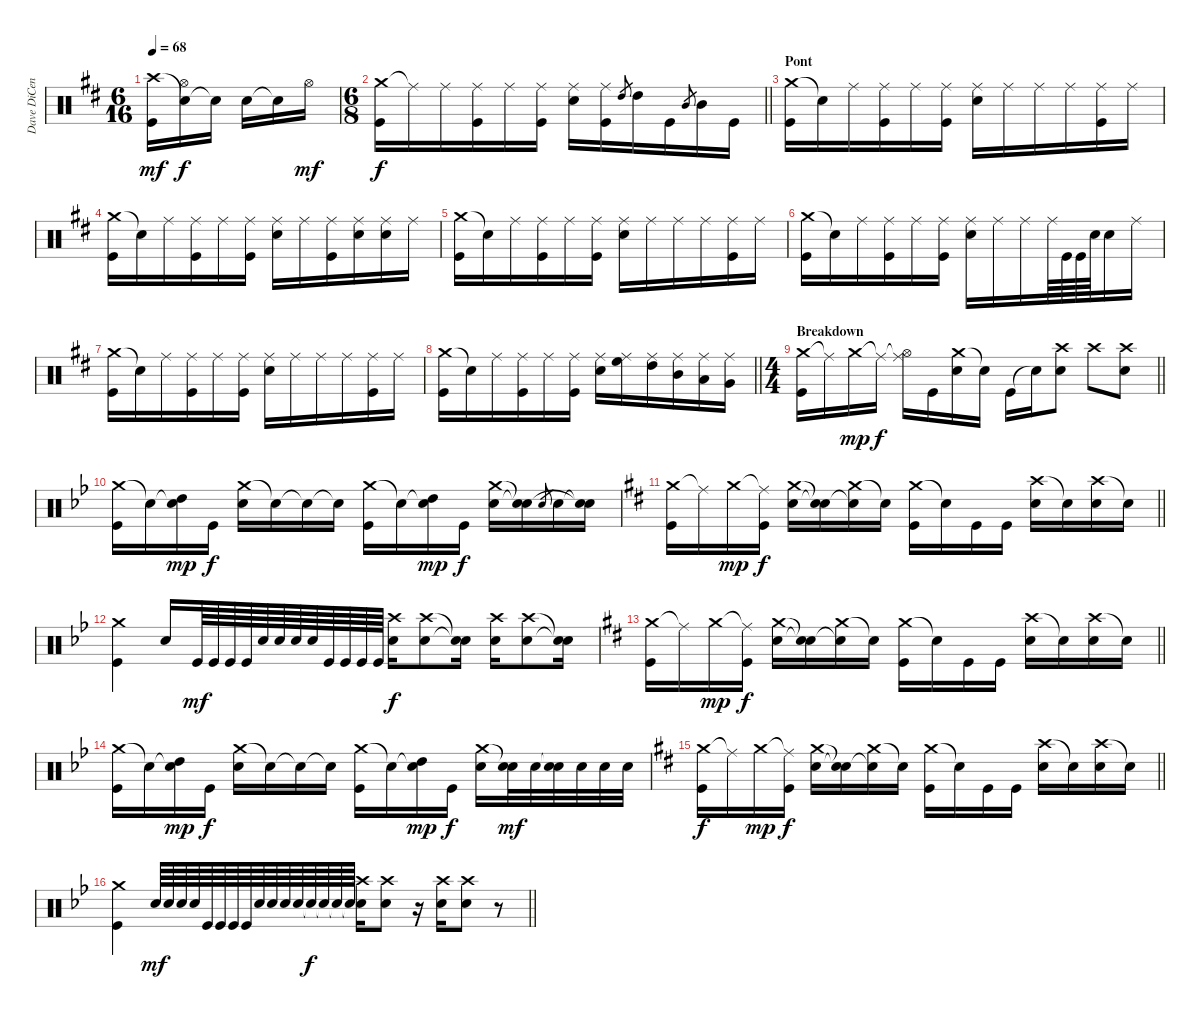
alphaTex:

\track ("Dave DiCenso" "Dave DiCen") {instrument percussion}
\staff {score}
\articulation defaults
\ts (6 16)
\tempo 68
\clef neutral
\ks d
("Crash high (hit)" "Kick (hit)").16{dy mf} ("Snare (hit)"{t} "Hi-Hat (open)").16{dy f} "Snare (hit)"{t}.16 "Electric Snare (hit)".16 "Snare (hit)"{t}.16 "Hi-Hat (open)".16{dy mf} |
\ts (6 8)
\barLineRight lightlight
("Crash medium (hit)" "Kick (hit)").16{dy f} "Ride (middle)"{t}.16 "Ride (middle)".16 ("Ride (middle)" "Kick (hit)").16 "Ride (middle)".16 ("Ride (middle)" "Kick (hit)").16 ("Ride (middle)" "Electric Snare (hit)").16 ("Ride (middle)" "Kick (hit)").16 "High Tom (hit)".8{gr} "High Tom (hit)".16 "Kick (hit)".16 "Mid Tom (hit)".8{gr} "Mid Tom (hit)".16 "Kick (hit)".16 |
\section ("" "Pont")
("Crash medium (hit)" "Kick (hit)").16 "Snare (hit)"{t}.16 "Ride (middle)".16 ("Ride (middle)" "Kick (hit)").16 "Ride (middle)".16 ("Ride (middle)" "Kick (hit)").16 ("Ride (middle)" "Electric Snare (hit)").16 "Ride (middle)".16 "Ride (middle)".16 "Ride (middle)".16 ("Ride (middle)" "Kick (hit)").16 "Ride (middle)".16 |
("Crash medium (hit)" "Kick (hit)").16 "Snare (hit)"{t}.16 "Ride (middle)".16 ("Ride (middle)" "Kick (hit)").16 "Ride (middle)".16 ("Ride (middle)" "Kick (hit)").16 ("Ride (middle)" "Electric Snare (hit)").16 "Ride (middle)".16 ("Ride (middle)" "Kick (hit)").16 ("Ride (middle)" "Electric Snare (hit)").16 ("Ride (middle)" "Electric Snare (hit)").16 "Ride (middle)".16 |
("Crash medium (hit)" "Kick (hit)").16 "Snare (hit)"{t}.16 "Ride (middle)".16 ("Ride (middle)" "Kick (hit)").16 "Ride (middle)".16 ("Ride (middle)" "Kick (hit)").16 ("Ride (middle)" "Electric Snare (hit)").16 "Ride (middle)".16 "Ride (middle)".16 "Ride (middle)".16 ("Ride (middle)" "Kick (hit)").16 "Ride (middle)".16 |
("Crash medium (hit)" "Kick (hit)").16 "Snare (hit)"{t}.16 "Ride (middle)".16 ("Ride (middle)" "Kick (hit)").16 "Ride (middle)".16 ("Ride (middle)" "Kick (hit)").16 ("Ride (middle)" "Electric Snare (hit)").16 "Ride (middle)".16 "Ride (middle)".16 "Ride (middle)".64 "Kick (hit)".64 "Kick (hit)".64 "Electric Snare (hit)".64 "Electric Snare (hit)".16 "Ride (middle)".16 |
("Crash medium (hit)" "Kick (hit)").16 "Snare (hit)"{t}.16 "Ride (middle)".16 ("Ride (middle)" "Kick (hit)").16 "Ride (middle)".16 ("Ride (middle)" "Kick (hit)").16 ("Ride (middle)" "Electric Snare (hit)").16 "Ride (middle)".16 "Ride (middle)".16 "Ride (middle)".16 ("Ride (middle)" "Kick (hit)").16 "Ride (middle)".16 |
\barLineRight lightlight
("Crash medium (hit)" "Kick (hit)").16 "Snare (hit)"{t}.16 "Ride (middle)".16 ("Ride (middle)" "Kick (hit)").16 "Ride (middle)".16 ("Ride (middle)" "Kick (hit)").16 ("Ride (middle)" "Electric Snare (hit)").16 ("Ride (middle)" "High Floor Tom (hit)").16 ("Ride (middle)" "High Tom (hit)").16 ("Ride (middle)" "Mid Tom (hit)").16 ("Ride (middle)" "Low Tom (hit)").16 ("Ride (middle)" "Very Low Tom (hit)").16 |
\ts (4 4)
\section ("" "Breakdown")
\barLineRight lightlight
("Crash medium (hit)" "Kick (hit)").16 "Ride (middle)"{t}.16 "Crash medium (hit)".16{dy mp} "Ride (middle)"{t}.16{dy f} ("Ride (middle)"{t} "Hi-Hat (open)").16 "Kick (hit)".16 ("Crash medium (hit)" "Electric Snare (hit)").16 "Snare (hit)"{t}.16 "Kick (hit)".16 "Snare (hit)"{t}.16 ("Crash high (hit)" "Electric Snare (hit)").8 "Crash high (hit)".8 ("Crash high (hit)" "Electric Snare (hit)").8 |
\ks bb
("Crash medium (hit)" "Kick (hit)").16 "Snare (hit)"{t}.16 ("Snare (hit)"{t} "High Tom (hit)").16{dy mp} "Kick (hit)".16{dy f} ("Crash medium (hit)" "Electric Snare (hit)").16 "Snare (hit)"{t}.16 "Snare (hit)"{t}.16 "Snare (hit)"{t}.16 ("Crash medium (hit)" "Kick (hit)").16 "Snare (hit)"{t}.16 ("Snare (hit)"{t} "High Tom (hit)").16{dy mp} "Kick (hit)".16{dy f} ("Crash medium (hit)" "Electric Snare (hit)").16 ("Snare (hit)"{t} "Snare (hit)"{t}).16 "Electric Snare (hit)".8{gr} "Electric Snare (hit)".16 ("Snare (hit)"{t} "Snare (hit)"{t}).16 |
\barLineRight lightlight
\ks d
("Crash medium (hit)" "Kick (hit)").16 "Ride (middle)"{t}.16 "Crash medium (hit)".16{dy mp} ("Ride (middle)"{t} "Kick (hit)").16{dy f} ("Crash medium (hit)" "Electric Snare (hit)").16 ("Snare (hit)"{t} "Snare (hit)"{t}).16 ("Crash medium (hit)" "Electric Snare (hit)"{t}).16 "Snare (hit)"{t}.16 ("Crash medium (hit)" "Kick (hit)").16 "Snare (hit)"{t}.16 "Kick (hit)".16 "Kick (hit)".16 ("Crash high (hit)" "Electric Snare (hit)").16 "Snare (hit)"{t}.16 ("Crash high (hit)" "Electric Snare (hit)").16 "Snare (hit)"{t}.16 |
\ks bb
("Crash medium (hit)" "Kick (hit)").4 "Electric Snare (hit)".16 "Kick (hit)".64{dy mf} "Kick (hit)".64 "Kick (hit)".64 "Kick (hit)".64 "Electric Snare (hit)".64 "Electric Snare (hit)".64 "Electric Snare (hit)".64 "Electric Snare (hit)".64 "Kick (hit)".64 "Kick (hit)".64 "Kick (hit)".64 "Kick (hit)".64 ("Crash high (hit)" "Electric Snare (hit)").16{dy f} ("Crash high (hit)" "Electric Snare (hit)").8 ("Snare (hit)"{t} "Snare (hit)"{t}).16 ("Crash high (hit)" "Electric Snare (hit)").16 ("Crash high (hit)" "Electric Snare (hit)").8 ("Snare (hit)"{t} "Snare (hit)"{t}).16 |
\barLineRight lightlight
\ks d
("Crash medium (hit)" "Kick (hit)").16 "Ride (middle)"{t}.16 "Crash medium (hit)".16{dy mp} ("Ride (middle)"{t} "Kick (hit)").16{dy f} ("Crash medium (hit)" "Electric Snare (hit)").16 ("Snare (hit)"{t} "Snare (hit)"{t}).16 ("Crash medium (hit)" "Electric Snare (hit)"{t}).16 "Snare (hit)"{t}.16 ("Crash medium (hit)" "Kick (hit)").16 "Snare (hit)"{t}.16 "Kick (hit)".16 "Kick (hit)".16 ("Crash high (hit)" "Electric Snare (hit)").16 "Snare (hit)"{t}.16 ("Crash high (hit)" "Electric Snare (hit)").16 "Snare (hit)"{t}.16 |
\ks bb
("Crash medium (hit)" "Kick (hit)").16 "Snare (hit)"{t}.16 ("Snare (hit)"{t} "High Tom (hit)").16{dy mp} "Kick (hit)".16{dy f} ("Crash medium (hit)" "Electric Snare (hit)").16 "Snare (hit)"{t}.16 "Snare (hit)"{t}.16 "Snare (hit)"{t}.16 ("Crash medium (hit)" "Kick (hit)").16 "Snare (hit)"{t}.16 ("Snare (hit)"{t} "High Tom (hit)").16{dy mp} "Kick (hit)".16{dy f} ("Crash medium (hit)" "Electric Snare (hit)").16 ("Snare (hit)"{t} "Electric Snare (hit)").32{dy mf} "Electric Snare (hit)".32 ("Snare (hit)"{t} "Electric Snare (hit)").32 "Electric Snare (hit)".32 "Electric Snare (hit)".32 "Electric Snare (hit)".32 |
\barLineRight lightlight
\ks d
("Crash medium (hit)" "Kick (hit)").16{dy f} "Ride (middle)"{t}.16 "Crash medium (hit)".16{dy mp} ("Ride (middle)"{t} "Kick (hit)").16{dy f} ("Crash medium (hit)" "Electric Snare (hit)").16 ("Snare (hit)"{t} "Snare (hit)"{t}).16 ("Crash medium (hit)" "Electric Snare (hit)"{t}).16 "Snare (hit)"{t}.16 ("Crash medium (hit)" "Kick (hit)").16 "Snare (hit)"{t}.16 "Kick (hit)".16 "Kick (hit)".16 ("Crash high (hit)" "Electric Snare (hit)").16 "Snare (hit)"{t}.16 ("Crash high (hit)" "Electric Snare (hit)").16 "Snare (hit)"{t}.16 |
\barLineRight lightlight
\ks bb
("Crash medium (hit)" "Kick (hit)").4 "Electric Snare (hit)".64{dy mf} "Electric Snare (hit)".64 "Electric Snare (hit)".64 "Electric Snare (hit)".64 "Kick (hit)".64 "Kick (hit)".64 "Kick (hit)".64 "Kick (hit)".64 "Electric Snare (hit)".64 "Electric Snare (hit)".64 "Electric Snare (hit)".64 "Electric Snare (hit)".64 "Snare (hit)"{t}.64{dy f} "Snare (hit)"{t}.64 "Snare (hit)"{t}.64 "Snare (hit)"{t}.64 ("Crash high (hit)" "Electric Snare (hit)").16 ("Crash high (hit)" "Electric Snare (hit)").8 r.16 ("Crash high (hit)" "Electric Snare (hit)").16 ("Crash high (hit)" "Electric Snare (hit)").8 r.8
